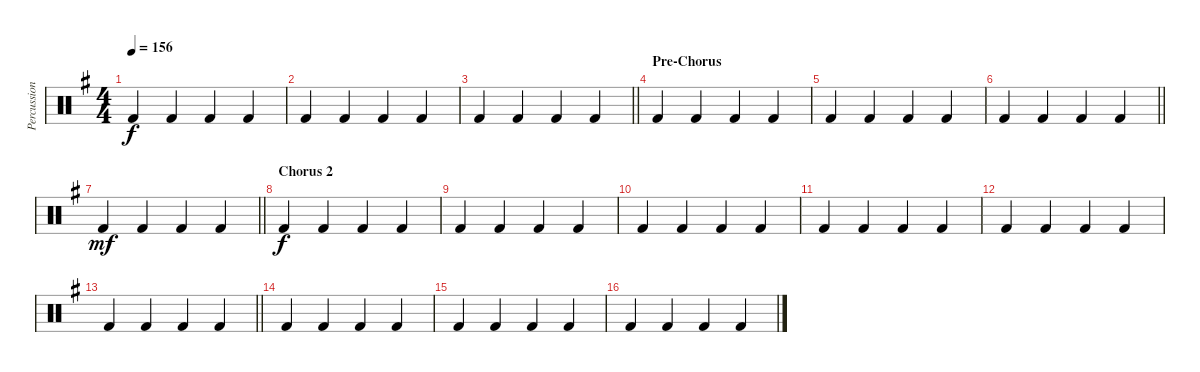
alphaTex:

\track ("Percussion" "Percussion") {instrument percussion}
\staff {score}
\articulation defaults
\ts (4 4)
\tempo 156
\clef neutral
\ks g "Kick (hit) 2".4{dy f} "Kick (hit) 2".4 "Kick (hit) 2".4 "Kick (hit) 2".4
|
"Kick (hit) 2".4 "Kick (hit) 2".4 "Kick (hit) 2".4 "Kick (hit) 2".4 |
\barLineRight lightlight "Kick (hit) 2".4 "Kick (hit) 2".4 "Kick (hit) 2".4 "Kick (hit) 2".4
|
\section ("" "Pre-Chorus")
"Kick (hit) 2".4 "Kick (hit) 2".4 "Kick (hit) 2".4 "Kick (hit) 2".4 |
"Kick (hit) 2".4 "Kick (hit) 2".4 "Kick (hit) 2".4 "Kick (hit) 2".4 |
\barLineRight lightlight "Kick (hit) 2".4 "Kick (hit) 2".4 "Kick (hit) 2".4 "Kick (hit) 2".4
|
\barLineRight lightlight "Kick (hit) 2".4{dy mf} "Kick (hit) 2".4 "Kick (hit) 2".4 "Kick (hit) 2".4
|
\section ("" "Chorus 2")
"Kick (hit) 2".4{dy f} "Kick (hit) 2".4 "Kick (hit) 2".4 "Kick (hit) 2".4 |
"Kick (hit) 2".4 "Kick (hit) 2".4 "Kick (hit) 2".4 "Kick (hit) 2".4 |
"Kick (hit) 2".4 "Kick (hit) 2".4 "Kick (hit) 2".4 "Kick (hit) 2".4 |
"Kick (hit) 2".4 "Kick (hit) 2".4 "Kick (hit) 2".4 "Kick (hit) 2".4 |
"Kick (hit) 2".4 "Kick (hit) 2".4 "Kick (hit) 2".4 "Kick (hit) 2".4 |
\barLineRight lightlight "Kick (hit) 2".4 "Kick (hit) 2".4 "Kick (hit) 2".4 "Kick (hit) 2".4
|
"Kick (hit) 2".4 "Kick (hit) 2".4 "Kick (hit) 2".4 "Kick (hit) 2".4 |
"Kick (hit) 2".4 "Kick (hit) 2".4 "Kick (hit) 2".4 "Kick (hit) 2".4 |
"Kick (hit) 2".4 "Kick (hit) 2".4 "Kick (hit) 2".4 "Kick (hit) 2".4
